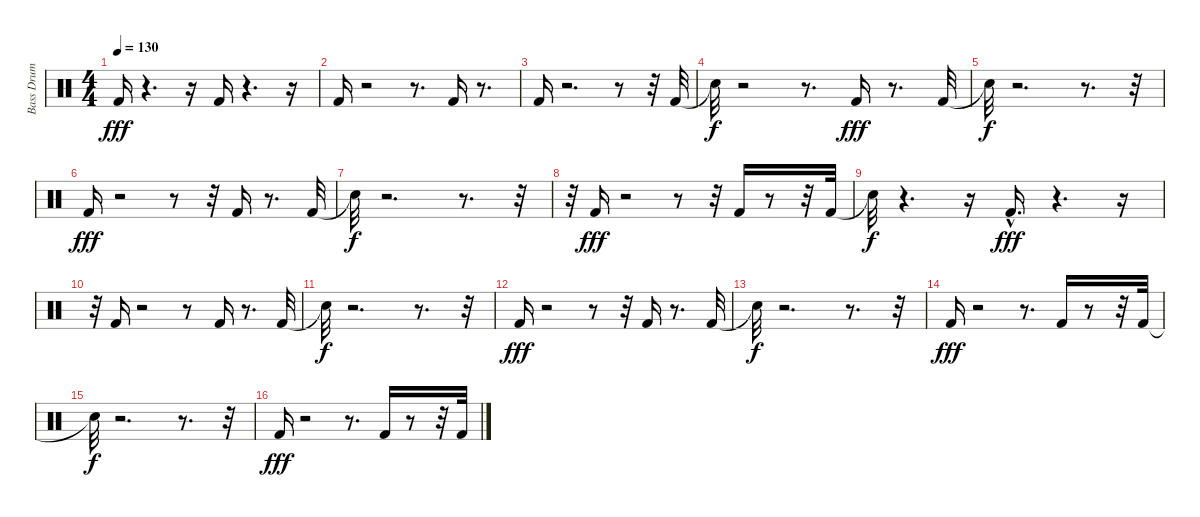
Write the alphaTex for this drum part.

\track ("Bass Drum" "Bass Drum") {instrument percussion}
\staff {score}
\articulation defaults
\ts (4 4)
\tempo 130
\clef neutral
\ks c "Kick (hit) 2".16{dy fff}
r.4{d} r.16 "Kick (hit) 2".16 r.4{d} r.16 |
"Kick (hit) 2".16 r.2 r.8{d} "Kick (hit) 2".16 r.8{d} |
"Kick (hit) 2".16 r.2{d} r.8 r.32 "Kick (hit) 2".32 |
"Snare (hit)"{t}.32{dy f} r.2 r.8{d} "Kick (hit) 2".16{dy fff} r.8{d} "Kick (hit) 2".32 |
"Snare (hit)"{t}.32{dy f} r.2{d} r.8{d} r.32 |
"Kick (hit) 2".16{dy fff} r.2 r.8 r.32 "Kick (hit) 2".16 r.8{d} "Kick (hit) 2".32 |
"Snare (hit)"{t}.32{dy f} r.2{d} r.8{d} r.32 |
r.32 "Kick (hit) 2".16{dy fff} r.2 r.8 r.32 "Kick (hit) 2".16 r.8 r.32 "Kick (hit) 2".32 |
"Snare (hit)"{t}.32{dy f} r.4{d} r.16 "Kick (hit) 2"{hac}.16{d dy fff} r.4{d} r.16 |
r.32 "Kick (hit) 2".16 r.2 r.8 "Kick (hit) 2".16 r.8{d} "Kick (hit) 2".32 |
"Snare (hit)"{t}.32{dy f} r.2{d} r.8{d} r.32 |
"Kick (hit) 2".16{dy fff} r.2 r.8 r.32 "Kick (hit) 2".16 r.8{d} "Kick (hit) 2".32 |
"Snare (hit)"{t}.32{dy f} r.2{d} r.8{d} r.32 |
"Kick (hit) 2".16{dy fff} r.2 r.8{d} "Kick (hit) 2".16 r.8 r.32 "Kick (hit) 2".32 |
"Snare (hit)"{t}.32{dy f} r.2{d} r.8{d} r.32 |
"Kick (hit) 2".16{dy fff} r.2 r.8{d} "Kick (hit) 2".16 r.8 r.32 "Kick (hit) 2".32
